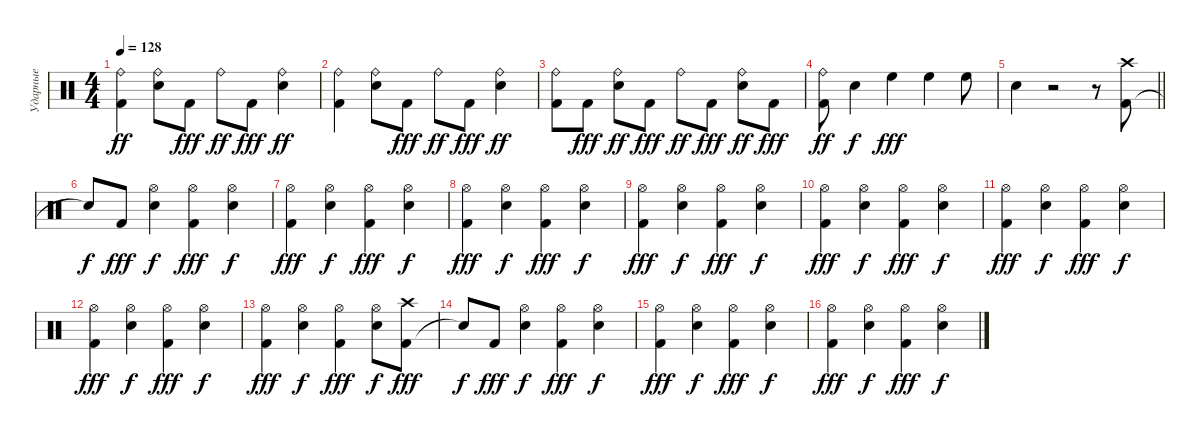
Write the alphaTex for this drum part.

\track ("Ударные" "Ударные") {instrument percussion}
\staff {score}
\articulation defaults
\ts (4 4)
\tempo 128
\clef neutral
\ks c
("Kick (hit) 2" "Ride (bell)").4{dy ff} ("Snare (hit) 2" "Ride (bell)").8 "Kick (hit) 2".8{dy fff} "Ride (bell)".8{dy ff} "Kick (hit) 2".8{dy fff} ("Snare (hit) 2" "Ride (bell)").4{dy ff} |
("Kick (hit) 2" "Ride (bell)").4 ("Snare (hit) 2" "Ride (bell)").8 "Kick (hit) 2".8{dy fff} "Ride (bell)".8{dy ff} "Kick (hit) 2".8{dy fff} ("Snare (hit) 2" "Ride (bell)").4{dy ff} |
("Kick (hit) 2" "Ride (bell)").8 "Kick (hit) 2".8{dy fff} ("Snare (hit) 2" "Ride (bell)").8{dy ff} "Kick (hit) 2".8{dy fff} "Ride (bell)".8{dy ff} "Kick (hit) 2".8{dy fff} ("Snare (hit) 2" "Ride (bell)").8{dy ff} "Kick (hit) 2".8{dy fff} |
("Kick (hit) 2" "Ride (bell)").8{dy ff} "Snare (hit) 2".4{dy f} "High Floor Tom (hit)".4{dy fff} "High Floor Tom (hit)".4 "High Floor Tom (hit)".8 |
\barLineRight lightlight "Snare (hit) 2".4
r.2 r.8 ("Kick (hit) 2" "Crash high (hit)").8 |
"Snare (hit)"{t}.8{dy f} "Kick (hit) 2".8{dy fff} ("Snare (hit) 2" "Hi-Hat (open)").4{dy f} ("Kick (hit) 2" "Hi-Hat (open)").4{dy fff} ("Snare (hit) 2" "Hi-Hat (open)").4{dy f} |
("Kick (hit) 2" "Hi-Hat (open)").4{dy fff} ("Snare (hit) 2" "Hi-Hat (open)").4{dy f} ("Kick (hit) 2" "Hi-Hat (open)").4{dy fff} ("Snare (hit) 2" "Hi-Hat (open)").4{dy f} |
("Kick (hit) 2" "Hi-Hat (open)").4{dy fff} ("Snare (hit) 2" "Hi-Hat (open)").4{dy f} ("Kick (hit) 2" "Hi-Hat (open)").4{dy fff} ("Snare (hit) 2" "Hi-Hat (open)").4{dy f} |
("Kick (hit) 2" "Hi-Hat (open)").4{dy fff} ("Snare (hit) 2" "Hi-Hat (open)").4{dy f} ("Kick (hit) 2" "Hi-Hat (open)").4{dy fff} ("Snare (hit) 2" "Hi-Hat (open)").4{dy f} |
("Kick (hit) 2" "Hi-Hat (open)").4{dy fff} ("Snare (hit) 2" "Hi-Hat (open)").4{dy f} ("Kick (hit) 2" "Hi-Hat (open)").4{dy fff} ("Snare (hit) 2" "Hi-Hat (open)").4{dy f} |
("Kick (hit) 2" "Hi-Hat (open)").4{dy fff} ("Snare (hit) 2" "Hi-Hat (open)").4{dy f} ("Kick (hit) 2" "Hi-Hat (open)").4{dy fff} ("Snare (hit) 2" "Hi-Hat (open)").4{dy f} |
("Kick (hit) 2" "Hi-Hat (open)").4{dy fff} ("Snare (hit) 2" "Hi-Hat (open)").4{dy f} ("Kick (hit) 2" "Hi-Hat (open)").4{dy fff} ("Snare (hit) 2" "Hi-Hat (open)").4{dy f} |
("Kick (hit) 2" "Hi-Hat (open)").4{dy fff} ("Snare (hit) 2" "Hi-Hat (open)").4{dy f} ("Kick (hit) 2" "Hi-Hat (open)").4{dy fff} ("Snare (hit) 2" "Hi-Hat (open)").8{dy f} ("Kick (hit) 2" "Crash high (hit)").8{dy fff} |
"Snare (hit)"{t}.8{dy f} "Kick (hit) 2".8{dy fff} ("Snare (hit) 2" "Hi-Hat (open)").4{dy f} ("Kick (hit) 2" "Hi-Hat (open)").4{dy fff} ("Snare (hit) 2" "Hi-Hat (open)").4{dy f} |
("Kick (hit) 2" "Hi-Hat (open)").4{dy fff} ("Snare (hit) 2" "Hi-Hat (open)").4{dy f} ("Kick (hit) 2" "Hi-Hat (open)").4{dy fff} ("Snare (hit) 2" "Hi-Hat (open)").4{dy f} |
("Kick (hit) 2" "Hi-Hat (open)").4{dy fff} ("Snare (hit) 2" "Hi-Hat (open)").4{dy f} ("Kick (hit) 2" "Hi-Hat (open)").4{dy fff} ("Snare (hit) 2" "Hi-Hat (open)").4{dy f}
